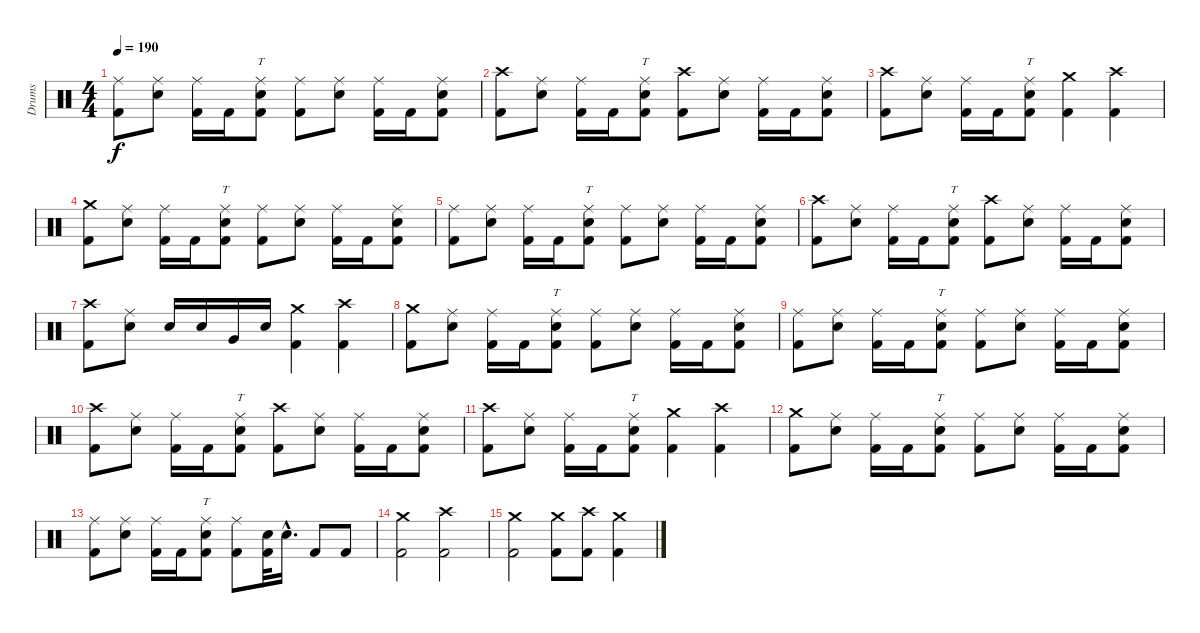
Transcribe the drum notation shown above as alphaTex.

\track ("Drums" "Drums") {instrument percussion}
\staff {score}
\articulation defaults
\ts (4 4)
\tempo 190
\clef neutral
\ks c
("Ride (middle)" "Kick (hit) 2").8{dy f} ("Ride (middle)" "Electric Snare (hit)").8 ("Ride (middle)" "Kick (hit) 2").16 "Kick (hit) 2".16 ("Ride (middle)" "Electric Snare (hit)" "Kick (hit) 2").8{tt} ("Ride (middle)" "Kick (hit) 2").8 ("Ride (middle)" "Electric Snare (hit)").8 ("Ride (middle)" "Kick (hit) 2").16 "Kick (hit) 2".16 ("Ride (middle)" "Electric Snare (hit)" "Kick (hit) 2").8 |
("Crash high (hit)" "Kick (hit) 2").8 ("Ride (middle)" "Electric Snare (hit)").8 ("Ride (middle)" "Kick (hit) 2").16 "Kick (hit) 2".16 ("Ride (middle)" "Electric Snare (hit)" "Kick (hit) 2").8{tt} ("Crash high (hit)" "Kick (hit) 2").8 ("Ride (middle)" "Electric Snare (hit)").8 ("Ride (middle)" "Kick (hit) 2").16 "Kick (hit) 2".16 ("Ride (middle)" "Electric Snare (hit)" "Kick (hit) 2").8 |
("Crash high (hit)" "Kick (hit) 2").8 ("Ride (middle)" "Electric Snare (hit)").8 ("Ride (middle)" "Kick (hit) 2").16 "Kick (hit) 2".16 ("Ride (middle)" "Electric Snare (hit)" "Kick (hit) 2").8{tt} ("Crash medium (hit)" "Kick (hit) 2").4 ("Crash high (hit)" "Kick (hit) 2").4 |
("Crash medium (hit)" "Kick (hit) 2").8 ("Ride (middle)" "Electric Snare (hit)").8 ("Ride (middle)" "Kick (hit) 2").16 "Kick (hit) 2".16 ("Ride (middle)" "Electric Snare (hit)" "Kick (hit) 2").8{tt} ("Ride (middle)" "Kick (hit) 2").8 ("Ride (middle)" "Electric Snare (hit)").8 ("Ride (middle)" "Kick (hit) 2").16 "Kick (hit) 2".16 ("Ride (middle)" "Electric Snare (hit)" "Kick (hit) 2").8 |
("Ride (middle)" "Kick (hit) 2").8 ("Ride (middle)" "Electric Snare (hit)").8 ("Ride (middle)" "Kick (hit) 2").16 "Kick (hit) 2".16 ("Ride (middle)" "Electric Snare (hit)" "Kick (hit) 2").8{tt} ("Ride (middle)" "Kick (hit) 2").8 ("Ride (middle)" "Electric Snare (hit)").8 ("Ride (middle)" "Kick (hit) 2").16 "Kick (hit) 2".16 ("Ride (middle)" "Electric Snare (hit)" "Kick (hit) 2").8 |
("Crash high (hit)" "Kick (hit) 2").8 ("Ride (middle)" "Electric Snare (hit)").8 ("Ride (middle)" "Kick (hit) 2").16 "Kick (hit) 2".16 ("Ride (middle)" "Electric Snare (hit)" "Kick (hit) 2").8{tt} ("Crash high (hit)" "Kick (hit) 2").8 ("Ride (middle)" "Electric Snare (hit)").8 ("Ride (middle)" "Kick (hit) 2").16 "Kick (hit) 2".16 ("Ride (middle)" "Electric Snare (hit)" "Kick (hit) 2").8 |
("Crash high (hit)" "Kick (hit) 2").8 ("Ride (middle)" "Electric Snare (hit)").8 "Electric Snare (hit)".16 "Electric Snare (hit)".16 "Very Low Tom (hit)".16 "Electric Snare (hit)".16 ("Crash medium (hit)" "Kick (hit) 2").4 ("Crash high (hit)" "Kick (hit) 2").4 |
("Crash medium (hit)" "Kick (hit) 2").8 ("Ride (middle)" "Electric Snare (hit)").8 ("Ride (middle)" "Kick (hit) 2").16 "Kick (hit) 2".16 ("Ride (middle)" "Electric Snare (hit)" "Kick (hit) 2").8{tt} ("Ride (middle)" "Kick (hit) 2").8 ("Ride (middle)" "Electric Snare (hit)").8 ("Ride (middle)" "Kick (hit) 2").16 "Kick (hit) 2".16 ("Ride (middle)" "Electric Snare (hit)" "Kick (hit) 2").8 |
("Ride (middle)" "Kick (hit) 2").8 ("Ride (middle)" "Electric Snare (hit)").8 ("Ride (middle)" "Kick (hit) 2").16 "Kick (hit) 2".16 ("Ride (middle)" "Electric Snare (hit)" "Kick (hit) 2").8{tt} ("Ride (middle)" "Kick (hit) 2").8 ("Ride (middle)" "Electric Snare (hit)").8 ("Ride (middle)" "Kick (hit) 2").16 "Kick (hit) 2".16 ("Ride (middle)" "Electric Snare (hit)" "Kick (hit) 2").8 |
("Crash high (hit)" "Kick (hit) 2").8 ("Ride (middle)" "Electric Snare (hit)").8 ("Ride (middle)" "Kick (hit) 2").16 "Kick (hit) 2".16 ("Ride (middle)" "Electric Snare (hit)" "Kick (hit) 2").8{tt} ("Crash high (hit)" "Kick (hit) 2").8 ("Ride (middle)" "Electric Snare (hit)").8 ("Ride (middle)" "Kick (hit) 2").16 "Kick (hit) 2".16 ("Ride (middle)" "Electric Snare (hit)" "Kick (hit) 2").8 |
("Crash high (hit)" "Kick (hit) 2").8 ("Ride (middle)" "Electric Snare (hit)").8 ("Ride (middle)" "Kick (hit) 2").16 "Kick (hit) 2".16 ("Ride (middle)" "Electric Snare (hit)" "Kick (hit) 2").8{tt} ("Crash medium (hit)" "Kick (hit) 2").4 ("Crash high (hit)" "Kick (hit) 2").4 |
("Crash medium (hit)" "Kick (hit) 2").8 ("Ride (middle)" "Electric Snare (hit)").8 ("Ride (middle)" "Kick (hit) 2").16 "Kick (hit) 2".16 ("Ride (middle)" "Electric Snare (hit)" "Kick (hit) 2").8{tt} ("Ride (middle)" "Kick (hit) 2").8 ("Ride (middle)" "Electric Snare (hit)").8 ("Ride (middle)" "Kick (hit) 2").16 "Kick (hit) 2".16 ("Ride (middle)" "Electric Snare (hit)" "Kick (hit) 2").8 |
("Ride (middle)" "Kick (hit) 2").8 ("Ride (middle)" "Electric Snare (hit)").8 ("Ride (middle)" "Kick (hit) 2").16 "Kick (hit) 2".16 ("Ride (middle)" "Electric Snare (hit)" "Kick (hit) 2").8{tt} ("Ride (middle)" "Kick (hit) 2").8 ("Electric Snare (hit)" "Kick (hit) 2").32 "Electric Snare (hit)"{hac}.16{d} "Kick (hit) 2".8 "Kick (hit) 2".8 |
("Crash medium (hit)" "Kick (hit) 2").2 ("Crash high (hit)" "Kick (hit) 2").2 |
("Crash medium (hit)" "Kick (hit) 2").2 ("Crash medium (hit)" "Kick (hit) 2").8 ("Crash high (hit)" "Kick (hit) 2").8 ("Crash medium (hit)" "Kick (hit) 2").4
